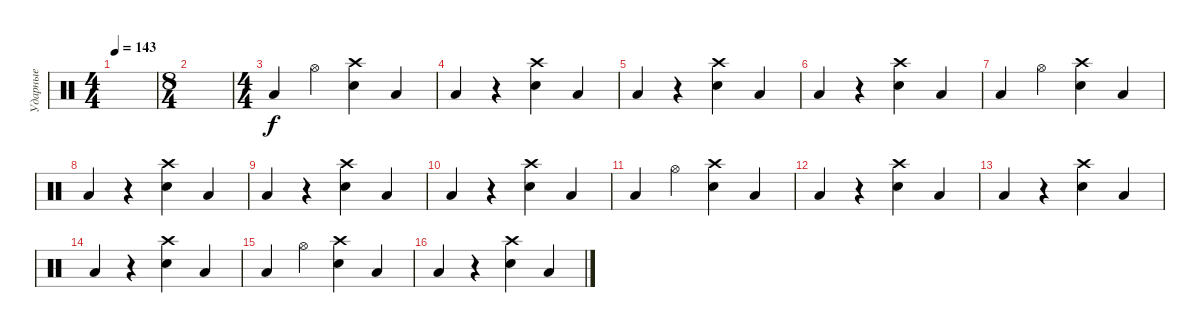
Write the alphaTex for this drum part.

\track ("Ударные" "Ударные") {instrument percussion}
\staff {score}
\articulation defaults
\ts (4 4)
\tempo 143
\clef neutral
\ks c
|
\ts (8 4)
|
\ts (4 4)
"Low Tom (hit)".4 "Hi-Hat (open)".4 ("Crash high (hit)" "Snare (hit) 2").4 "Low Tom (hit)".4 |
"Low Tom (hit)".4 r.4 ("Crash high (hit)" "Snare (hit) 2").4 "Low Tom (hit)".4 |
"Low Tom (hit)".4 r.4 ("Crash high (hit)" "Snare (hit) 2").4 "Low Tom (hit)".4 |
"Low Tom (hit)".4 r.4 ("Crash high (hit)" "Snare (hit) 2").4 "Low Tom (hit)".4 |
"Low Tom (hit)".4 "Hi-Hat (open)".4 ("Crash high (hit)" "Snare (hit) 2").4 "Low Tom (hit)".4 |
"Low Tom (hit)".4 r.4 ("Crash high (hit)" "Snare (hit) 2").4 "Low Tom (hit)".4 |
"Low Tom (hit)".4 r.4 ("Crash high (hit)" "Snare (hit) 2").4 "Low Tom (hit)".4 |
"Low Tom (hit)".4 r.4 ("Crash high (hit)" "Snare (hit) 2").4 "Low Tom (hit)".4 |
"Low Tom (hit)".4 "Hi-Hat (open)".4 ("Crash high (hit)" "Snare (hit) 2").4 "Low Tom (hit)".4 |
"Low Tom (hit)".4 r.4 ("Crash high (hit)" "Snare (hit) 2").4 "Low Tom (hit)".4 |
"Low Tom (hit)".4 r.4 ("Crash high (hit)" "Snare (hit) 2").4 "Low Tom (hit)".4 |
"Low Tom (hit)".4 r.4 ("Crash high (hit)" "Snare (hit) 2").4 "Low Tom (hit)".4 |
"Low Tom (hit)".4 "Hi-Hat (open)".4 ("Crash high (hit)" "Snare (hit) 2").4 "Low Tom (hit)".4 |
"Low Tom (hit)".4 r.4 ("Crash high (hit)" "Snare (hit) 2").4 "Low Tom (hit)".4
